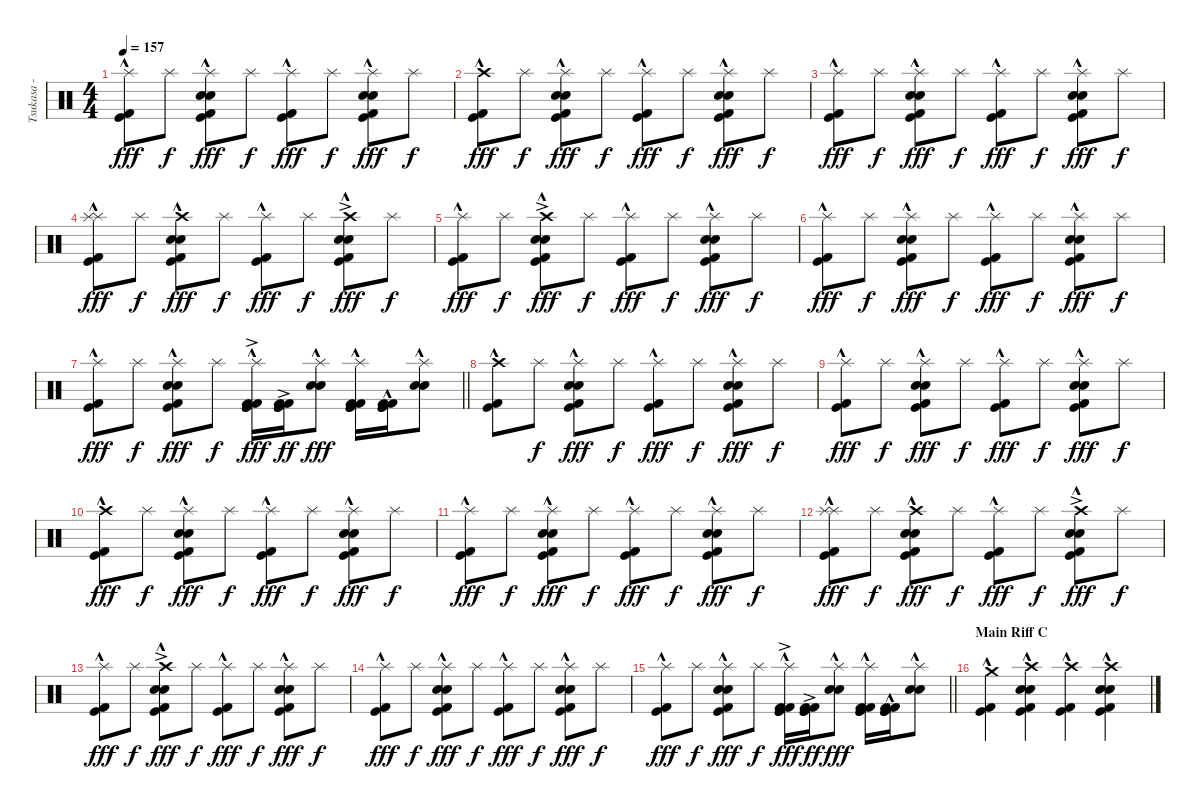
\track ("Tsukasa - Drums" "Tsukasa - ") {instrument percussion}
\staff {score}
\articulation defaults
\ts (4 4)
\tempo 157
\clef neutral
\ks c
("Splash (hit)"{hac} "Kick (hit)"{hac} "Kick (hit) 2"{hac}).8{dy fff} "Splash (hit)".8{dy f} ("Splash (hit)"{hac} "Electric Snare (hit)"{hac} "Snare (hit) 2" "Kick (hit)"{hac} "Kick (hit) 2"{hac}).8{dy fff} "Splash (hit)".8{dy f} ("Splash (hit)"{hac} "Kick (hit)"{hac} "Kick (hit) 2"{hac}).8{dy fff} "Splash (hit)".8{dy f} ("Splash (hit)"{hac} "Electric Snare (hit)"{hac} "Snare (hit) 2" "Kick (hit)"{hac} "Kick (hit) 2"{hac}).8{dy fff} "Splash (hit)".8{dy f} |
("Crash high (hit)" "Kick (hit)"{hac} "Kick (hit) 2"{hac}).8{dy fff} "Splash (hit)".8{dy f} ("Splash (hit)"{hac} "Electric Snare (hit)"{hac} "Snare (hit) 2" "Kick (hit)"{hac} "Kick (hit) 2"{hac}).8{dy fff} "Splash (hit)".8{dy f} ("Splash (hit)"{hac} "Kick (hit)"{hac} "Kick (hit) 2"{hac}).8{dy fff} "Splash (hit)".8{dy f} ("Splash (hit)"{hac} "Electric Snare (hit)"{hac} "Snare (hit) 2" "Kick (hit)"{hac} "Kick (hit) 2"{hac}).8{dy fff} "Splash (hit)".8{dy f} |
("Splash (hit)"{hac} "Kick (hit)"{hac} "Kick (hit) 2"{hac}).8{dy fff} "Splash (hit)".8{dy f} ("Splash (hit)"{hac} "Electric Snare (hit)"{hac} "Snare (hit) 2" "Kick (hit)"{hac} "Kick (hit) 2"{hac}).8{dy fff} "Splash (hit)".8{dy f} ("Splash (hit)"{hac} "Kick (hit)"{hac} "Kick (hit) 2"{hac}).8{dy fff} "Splash (hit)".8{dy f} ("Splash (hit)"{hac} "Electric Snare (hit)"{hac} "Snare (hit) 2" "Kick (hit)"{hac} "Kick (hit) 2"{hac}).8{dy fff} "Splash (hit)".8{dy f} |
("Splash (hit)"{hac} "Splash (hit)"{hac} "Kick (hit)"{hac} "Kick (hit) 2"{hac}).8{dy fff} "Splash (hit)".8{dy f} ("Crash high (hit)"{hac} "Electric Snare (hit)"{hac} "Snare (hit) 2" "Kick (hit)"{hac} "Kick (hit) 2"{hac}).8{dy fff} "Splash (hit)".8{dy f} ("Splash (hit)"{hac} "Kick (hit)"{hac} "Kick (hit) 2"{hac}).8{dy fff} "Splash (hit)".8{dy f} ("Crash high (hit)"{ac} "Electric Snare (hit)"{hac} "Snare (hit) 2" "Kick (hit)"{hac} "Kick (hit) 2"{hac}).8{dy fff} "Splash (hit)".8{dy f} |
("Splash (hit)"{hac} "Kick (hit)"{hac} "Kick (hit) 2"{hac}).8{dy fff} "Splash (hit)".8{dy f} ("Crash high (hit)"{ac} "Electric Snare (hit)"{hac} "Snare (hit) 2" "Kick (hit)"{hac} "Kick (hit) 2"{hac}).8{dy fff} "Splash (hit)".8{dy f} ("Splash (hit)"{hac} "Kick (hit)"{hac} "Kick (hit) 2"{hac}).8{dy fff} "Splash (hit)".8{dy f} ("Splash (hit)"{hac} "Electric Snare (hit)"{hac} "Snare (hit) 2" "Kick (hit)"{hac} "Kick (hit) 2"{hac}).8{dy fff} "Splash (hit)".8{dy f} |
("Splash (hit)"{hac} "Kick (hit)"{hac} "Kick (hit) 2"{hac}).8{dy fff} "Splash (hit)".8{dy f} ("Splash (hit)"{hac} "Electric Snare (hit)"{hac} "Snare (hit) 2" "Kick (hit)"{hac} "Kick (hit) 2"{hac}).8{dy fff} "Splash (hit)".8{dy f} ("Splash (hit)"{hac} "Kick (hit)"{hac} "Kick (hit) 2"{hac}).8{dy fff} "Splash (hit)".8{dy f} ("Splash (hit)"{hac} "Electric Snare (hit)"{hac} "Snare (hit) 2" "Kick (hit)"{hac} "Kick (hit) 2"{hac}).8{dy fff} "Splash (hit)".8{dy f} |
\barLineRight lightlight
("Splash (hit)"{hac} "Kick (hit)"{hac} "Kick (hit) 2"{hac}).8{dy fff} "Splash (hit)".8{dy f} ("Splash (hit)"{hac} "Electric Snare (hit)"{hac} "Snare (hit) 2" "Kick (hit)"{hac} "Kick (hit) 2"{hac}).8{dy fff} "Splash (hit)".8{dy f} ("Splash (hit)"{hac} "Kick (hit)"{ac} "Kick (hit) 2"{ac} "Kick (hit)"{hac} "Kick (hit) 2"{hac}).16{dy fff} ("Kick (hit)"{ac} "Kick (hit) 2"{ac} "Kick (hit)" "Kick (hit) 2").16{dy ff} ("Splash (hit)" "Electric Snare (hit)"{hac} "Snare (hit) 2"{hac}).8{dy fff} ("Splash (hit)"{hac} "Kick (hit)" "Kick (hit) 2" "Kick (hit)"{hac} "Kick (hit) 2"{hac}).16 ("Kick (hit)" "Kick (hit) 2" "Kick (hit)"{hac} "Kick (hit) 2"{hac}).16 ("Splash (hit)" "Electric Snare (hit)"{hac} "Snare (hit) 2").8 |
\section ("" "")
("Crash high (hit)" "Kick (hit)"{hac} "Kick (hit) 2"{hac}).8 "Splash (hit)".8{dy f} ("Splash (hit)"{hac} "Electric Snare (hit)"{hac} "Snare (hit) 2" "Kick (hit)"{hac} "Kick (hit) 2"{hac}).8{dy fff} "Splash (hit)".8{dy f} ("Splash (hit)"{hac} "Kick (hit)"{hac} "Kick (hit) 2"{hac}).8{dy fff} "Splash (hit)".8{dy f} ("Splash (hit)"{hac} "Electric Snare (hit)"{hac} "Snare (hit) 2" "Kick (hit)"{hac} "Kick (hit) 2"{hac}).8{dy fff} "Splash (hit)".8{dy f} |
("Splash (hit)"{hac} "Kick (hit)"{hac} "Kick (hit) 2"{hac}).8{dy fff} "Splash (hit)".8{dy f} ("Splash (hit)"{hac} "Electric Snare (hit)"{hac} "Snare (hit) 2" "Kick (hit)"{hac} "Kick (hit) 2"{hac}).8{dy fff} "Splash (hit)".8{dy f} ("Splash (hit)"{hac} "Kick (hit)"{hac} "Kick (hit) 2"{hac}).8{dy fff} "Splash (hit)".8{dy f} ("Splash (hit)"{hac} "Electric Snare (hit)"{hac} "Snare (hit) 2" "Kick (hit)"{hac} "Kick (hit) 2"{hac}).8{dy fff} "Splash (hit)".8{dy f} |
("Crash high (hit)" "Kick (hit)"{hac} "Kick (hit) 2"{hac}).8{dy fff} "Splash (hit)".8{dy f} ("Splash (hit)"{hac} "Electric Snare (hit)"{hac} "Snare (hit) 2" "Kick (hit)"{hac} "Kick (hit) 2"{hac}).8{dy fff} "Splash (hit)".8{dy f} ("Splash (hit)"{hac} "Kick (hit)"{hac} "Kick (hit) 2"{hac}).8{dy fff} "Splash (hit)".8{dy f} ("Splash (hit)"{hac} "Electric Snare (hit)"{hac} "Snare (hit) 2" "Kick (hit)"{hac} "Kick (hit) 2"{hac}).8{dy fff} "Splash (hit)".8{dy f} |
("Splash (hit)"{hac} "Kick (hit)"{hac} "Kick (hit) 2"{hac}).8{dy fff} "Splash (hit)".8{dy f} ("Splash (hit)"{hac} "Electric Snare (hit)"{hac} "Snare (hit) 2" "Kick (hit)"{hac} "Kick (hit) 2"{hac}).8{dy fff} "Splash (hit)".8{dy f} ("Splash (hit)"{hac} "Kick (hit)"{hac} "Kick (hit) 2"{hac}).8{dy fff} "Splash (hit)".8{dy f} ("Splash (hit)"{hac} "Electric Snare (hit)"{hac} "Snare (hit) 2" "Kick (hit)"{hac} "Kick (hit) 2"{hac}).8{dy fff} "Splash (hit)".8{dy f} |
("Splash (hit)"{hac} "Splash (hit)"{hac} "Kick (hit)"{hac} "Kick (hit) 2"{hac}).8{dy fff} "Splash (hit)".8{dy f} ("Crash high (hit)"{hac} "Electric Snare (hit)"{hac} "Snare (hit) 2" "Kick (hit)"{hac} "Kick (hit) 2"{hac}).8{dy fff} "Splash (hit)".8{dy f} ("Splash (hit)"{hac} "Kick (hit)"{hac} "Kick (hit) 2"{hac}).8{dy fff} "Splash (hit)".8{dy f} ("Crash high (hit)"{ac} "Electric Snare (hit)"{hac} "Snare (hit) 2" "Kick (hit)"{hac} "Kick (hit) 2"{hac}).8{dy fff} "Splash (hit)".8{dy f} |
("Splash (hit)"{hac} "Kick (hit)"{hac} "Kick (hit) 2"{hac}).8{dy fff} "Splash (hit)".8{dy f} ("Crash high (hit)"{ac} "Electric Snare (hit)"{hac} "Snare (hit) 2" "Kick (hit)"{hac} "Kick (hit) 2"{hac}).8{dy fff} "Splash (hit)".8{dy f} ("Splash (hit)"{hac} "Kick (hit)"{hac} "Kick (hit) 2"{hac}).8{dy fff} "Splash (hit)".8{dy f} ("Splash (hit)"{hac} "Electric Snare (hit)"{hac} "Snare (hit) 2" "Kick (hit)"{hac} "Kick (hit) 2"{hac}).8{dy fff} "Splash (hit)".8{dy f} |
("Splash (hit)"{hac} "Kick (hit)"{hac} "Kick (hit) 2"{hac}).8{dy fff} "Splash (hit)".8{dy f} ("Splash (hit)"{hac} "Electric Snare (hit)"{hac} "Snare (hit) 2" "Kick (hit)"{hac} "Kick (hit) 2"{hac}).8{dy fff} "Splash (hit)".8{dy f} ("Splash (hit)"{hac} "Kick (hit)"{hac} "Kick (hit) 2"{hac}).8{dy fff} "Splash (hit)".8{dy f} ("Splash (hit)"{hac} "Electric Snare (hit)"{hac} "Snare (hit) 2" "Kick (hit)"{hac} "Kick (hit) 2"{hac}).8{dy fff} "Splash (hit)".8{dy f} |
\barLineRight lightlight
("Splash (hit)"{hac} "Kick (hit)"{hac} "Kick (hit) 2"{hac}).8{dy fff} "Splash (hit)".8{dy f} ("Splash (hit)"{hac} "Electric Snare (hit)"{hac} "Snare (hit) 2" "Kick (hit)"{hac} "Kick (hit) 2"{hac}).8{dy fff} "Splash (hit)".8{dy f} ("Splash (hit)"{hac} "Kick (hit)"{ac} "Kick (hit) 2"{ac} "Kick (hit)"{hac} "Kick (hit) 2"{hac}).16{dy fff} ("Kick (hit)"{ac} "Kick (hit) 2"{ac} "Kick (hit)" "Kick (hit) 2").16{dy ff} ("Splash (hit)" "Electric Snare (hit)"{hac} "Snare (hit) 2"{hac}).8{dy fff} ("Splash (hit)"{hac} "Kick (hit)" "Kick (hit) 2" "Kick (hit)"{hac} "Kick (hit) 2"{hac}).16 ("Kick (hit)" "Kick (hit) 2" "Kick (hit)"{hac} "Kick (hit) 2"{hac}).16 ("Splash (hit)" "Electric Snare (hit)"{hac} "Snare (hit) 2").8 |
\section ("" "Main Riff C")
("Crash medium (hit)" "Kick (hit)"{hac} "Kick (hit) 2"{hac}).4 ("Crash high (hit)" "Electric Snare (hit)"{hac} "Snare (hit) 2" "Kick (hit)"{hac} "Kick (hit) 2"{hac}).4 ("Crash high (hit)" "Kick (hit)"{hac} "Kick (hit) 2"{hac}).4 ("Crash high (hit)" "Electric Snare (hit)"{hac} "Snare (hit) 2" "Kick (hit)"{hac} "Kick (hit) 2"{hac}).4
